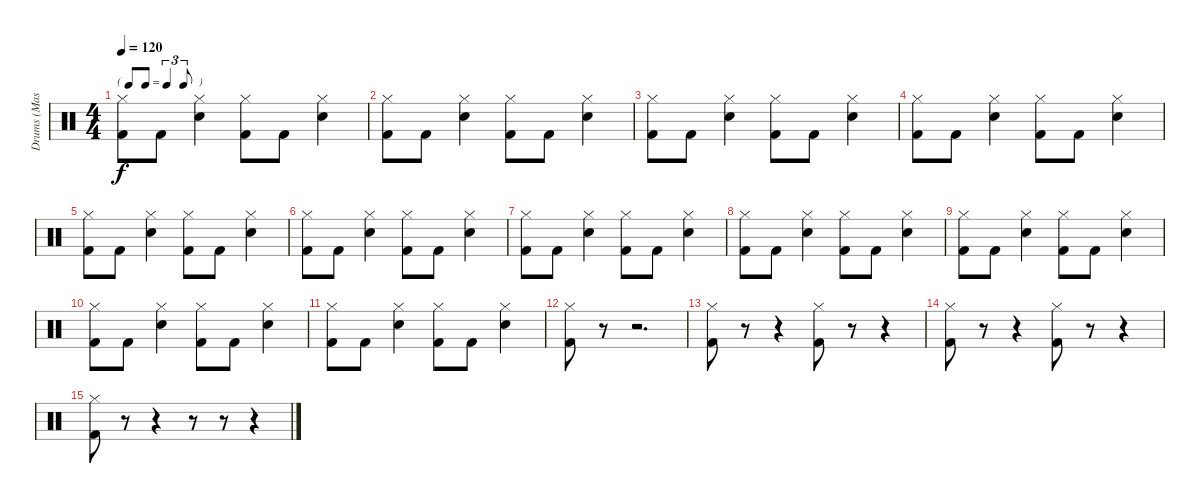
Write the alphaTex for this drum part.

\track ("Drums (Mason)" "Drums (Mas") {instrument percussion}
\staff {score}
\articulation defaults
\ts (4 4)
\tf triplet8th
\tempo 120
\clef neutral
\ks c
("Hi-Hat (closed)" "Kick (hit) 2").8{dy f} "Kick (hit) 2".8 ("Hi-Hat (closed)" "Electric Snare (hit)").4 ("Hi-Hat (closed)" "Kick (hit) 2").8 "Kick (hit) 2".8 ("Hi-Hat (closed)" "Electric Snare (hit)").4 |
("Hi-Hat (closed)" "Kick (hit) 2").8 "Kick (hit) 2".8 ("Hi-Hat (closed)" "Electric Snare (hit)").4 ("Hi-Hat (closed)" "Kick (hit) 2").8 "Kick (hit) 2".8 ("Hi-Hat (closed)" "Electric Snare (hit)").4 |
("Hi-Hat (closed)" "Kick (hit) 2").8 "Kick (hit) 2".8 ("Hi-Hat (closed)" "Electric Snare (hit)").4 ("Hi-Hat (closed)" "Kick (hit) 2").8 "Kick (hit) 2".8 ("Hi-Hat (closed)" "Electric Snare (hit)").4 |
("Hi-Hat (closed)" "Kick (hit) 2").8 "Kick (hit) 2".8 ("Hi-Hat (closed)" "Electric Snare (hit)").4 ("Hi-Hat (closed)" "Kick (hit) 2").8 "Kick (hit) 2".8 ("Hi-Hat (closed)" "Electric Snare (hit)").4 |
("Hi-Hat (closed)" "Kick (hit) 2").8 "Kick (hit) 2".8 ("Hi-Hat (closed)" "Electric Snare (hit)").4 ("Hi-Hat (closed)" "Kick (hit) 2").8 "Kick (hit) 2".8 ("Hi-Hat (closed)" "Electric Snare (hit)").4 |
("Hi-Hat (closed)" "Kick (hit) 2").8 "Kick (hit) 2".8 ("Hi-Hat (closed)" "Electric Snare (hit)").4 ("Hi-Hat (closed)" "Kick (hit) 2").8 "Kick (hit) 2".8 ("Hi-Hat (closed)" "Electric Snare (hit)").4 |
("Hi-Hat (closed)" "Kick (hit) 2").8 "Kick (hit) 2".8 ("Hi-Hat (closed)" "Electric Snare (hit)").4 ("Hi-Hat (closed)" "Kick (hit) 2").8 "Kick (hit) 2".8 ("Hi-Hat (closed)" "Electric Snare (hit)").4 |
("Hi-Hat (closed)" "Kick (hit) 2").8 "Kick (hit) 2".8 ("Hi-Hat (closed)" "Electric Snare (hit)").4 ("Hi-Hat (closed)" "Kick (hit) 2").8 "Kick (hit) 2".8 ("Hi-Hat (closed)" "Electric Snare (hit)").4 |
("Hi-Hat (closed)" "Kick (hit) 2").8 "Kick (hit) 2".8 ("Hi-Hat (closed)" "Electric Snare (hit)").4 ("Hi-Hat (closed)" "Kick (hit) 2").8 "Kick (hit) 2".8 ("Hi-Hat (closed)" "Electric Snare (hit)").4 |
("Hi-Hat (closed)" "Kick (hit) 2").8 "Kick (hit) 2".8 ("Hi-Hat (closed)" "Electric Snare (hit)").4 ("Hi-Hat (closed)" "Kick (hit) 2").8 "Kick (hit) 2".8 ("Hi-Hat (closed)" "Electric Snare (hit)").4 |
("Hi-Hat (closed)" "Kick (hit) 2").8 "Kick (hit) 2".8 ("Hi-Hat (closed)" "Electric Snare (hit)").4 ("Hi-Hat (closed)" "Kick (hit) 2").8 "Kick (hit) 2".8 ("Hi-Hat (closed)" "Electric Snare (hit)").4 |
("Hi-Hat (closed)" "Kick (hit) 2").8 r.8 r.2{d} |
("Hi-Hat (closed)" "Kick (hit) 2").8 r.8 r.4 ("Hi-Hat (closed)" "Kick (hit) 2").8 r.8 r.4 |
("Hi-Hat (closed)" "Kick (hit) 2").8 r.8 r.4 ("Hi-Hat (closed)" "Kick (hit) 2").8 r.8 r.4 |
("Hi-Hat (closed)" "Kick (hit) 2").8 r.8 r.4 r.8 r.8 r.4
